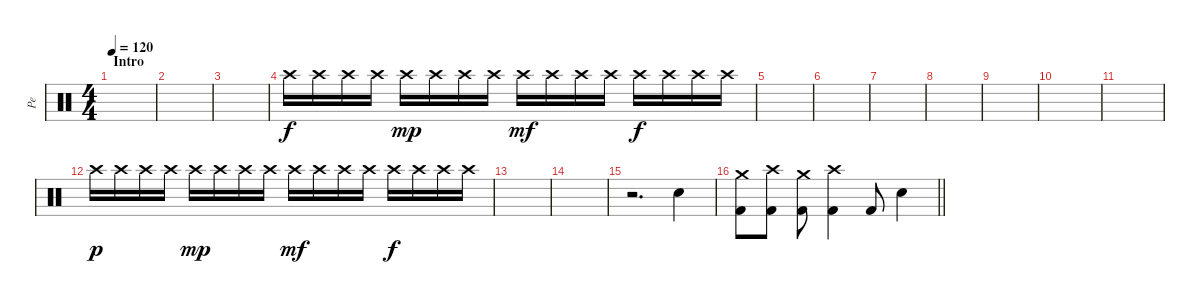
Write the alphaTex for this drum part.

\track ("Pe" "Pe") {instrument percussion}
\staff {score}
\articulation defaults
\ts (4 4)
\section ("" "Intro")
\tempo 120
\clef neutral
\ks c
|
|
|
"Crash high (hit)".16 "Crash high (hit)".16 "Crash high (hit)".16 "Crash high (hit)".16 "Crash high (hit)".16{dy mp} "Crash high (hit)".16 "Crash high (hit)".16 "Crash high (hit)".16 "Crash high (hit)".16{dy mf} "Crash high (hit)".16 "Crash high (hit)".16 "Crash high (hit)".16 "Crash high (hit)".16{dy f} "Crash high (hit)".16 "Crash high (hit)".16 "Crash high (hit)".16 |
|
|
|
|
|
|
|
"Crash high (hit)".16{dy p} "Crash high (hit)".16 "Crash high (hit)".16 "Crash high (hit)".16 "Crash high (hit)".16{dy mp} "Crash high (hit)".16 "Crash high (hit)".16 "Crash high (hit)".16 "Crash high (hit)".16{dy mf} "Crash high (hit)".16 "Crash high (hit)".16 "Crash high (hit)".16 "Crash high (hit)".16{dy f} "Crash high (hit)".16 "Crash high (hit)".16 "Crash high (hit)".16 |
|
|
r.2{d} "Snare (hit) 2".4 |
\barLineRight lightlight
("Kick (hit) 2" "Crash medium (hit)").8 ("Kick (hit) 2" "Crash high (hit)").8 ("Kick (hit) 2" "Crash medium (hit)").8 ("Kick (hit) 2" "Crash high (hit)").4 "Kick (hit) 2".8 "Snare (hit) 2".4
